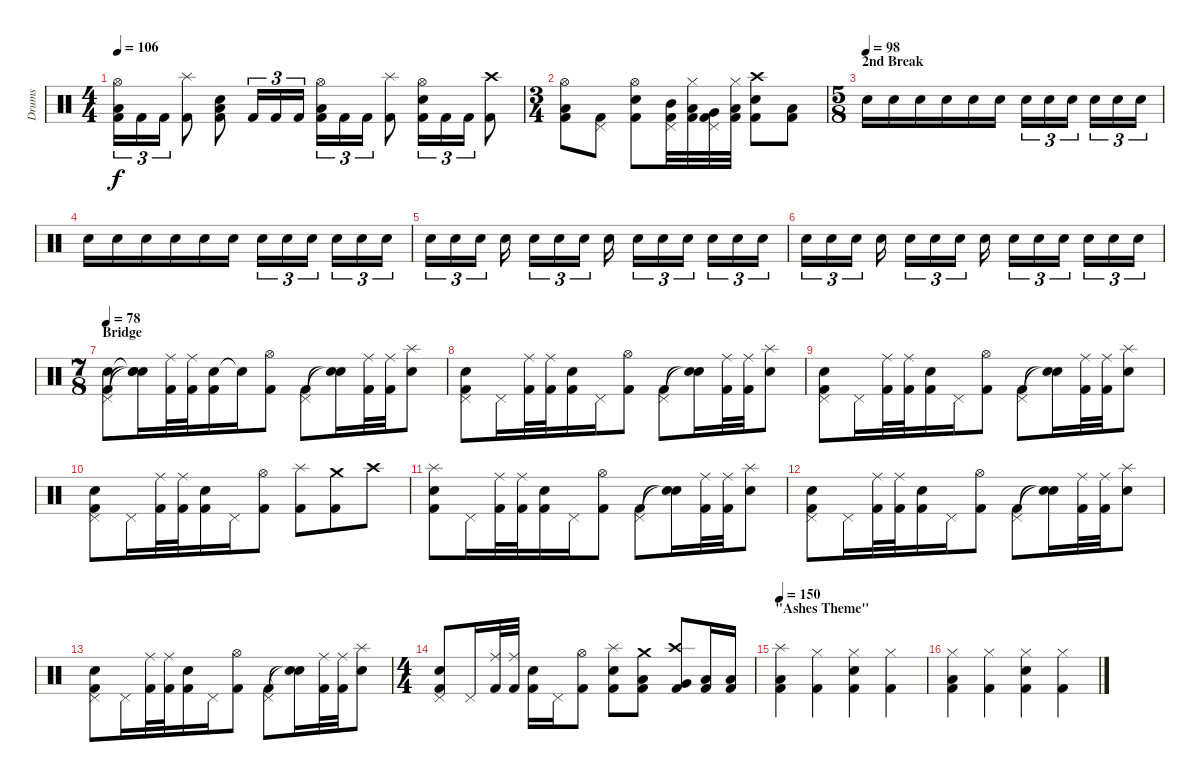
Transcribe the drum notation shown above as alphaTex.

\track ("Drums" "Drums") {instrument percussion}
\staff {score}
\articulation defaults
\ts (4 4)
\tempo 106
\clef neutral
\ks c
("Hi-Hat (open)" "Low Tom (hit)" "Kick (hit) 2").16{tu (3 2) dy f} "Kick (hit) 2".16{tu (3 2)} "Kick (hit) 2".16{tu (3 2)} ("Splash (hit)" "Kick (hit) 2").8 ("Low Tom (hit)" "Electric Snare (hit)" "Kick (hit) 2").8 "Kick (hit) 2".16{tu (3 2)} "Kick (hit) 2".16{tu (3 2)} "Kick (hit) 2".16{tu (3 2)} ("Hi-Hat (open)" "Low Tom (hit)" "Kick (hit) 2").16{tu (3 2)} "Kick (hit) 2".16{tu (3 2)} "Kick (hit) 2".16{tu (3 2)} ("Splash (hit)" "Kick (hit) 2").8 ("Hi-Hat (open)" "Electric Snare (hit)" "Kick (hit) 2").16{tu (3 2)} "Kick (hit) 2".16{tu (3 2)} "Kick (hit) 2".16{tu (3 2)} ("Crash high (hit)" "Kick (hit) 2").8 |
\ts (3 4)
("Hi-Hat (open)" "Low Tom (hit)" "Kick (hit) 2").8 ("Pedal Hi-Hat (hit)" "Kick (hit) 2").8 ("Hi-Hat (open)" "Electric Snare (hit)" "Kick (hit) 2").8 ("Mid Tom (hit)" "Pedal Hi-Hat (hit)" "Kick (hit) 2").32 ("Low Tom (hit)" "Hi-Hat (closed)" "Kick (hit) 2").32 ("Very Low Tom (hit)" "Pedal Hi-Hat (hit)" "Kick (hit) 2").32 ("Low Floor Tom (hit)" "Hi-Hat (closed)" "Kick (hit) 2").32 ("Crash high (hit)" "Electric Snare (hit)" "Kick (hit) 2").8 ("Low Tom (hit)" "Kick (hit) 2").8 |
\ts (5 8)
\section ("" "2nd Break")
\tempo (98)
"Snare (hit) 2".16{volume 9} "Electric Snare (hit)".16 "Snare (hit) 2".16 "Electric Snare (hit)".16 "Snare (hit) 2".16 "Electric Snare (hit)".16 "Snare (hit) 2".16{tu (3 2)} "Electric Snare (hit)".16{tu (3 2)} "Snare (hit) 2".16{tu (3 2)} "Electric Snare (hit)".16{tu (3 2)} "Snare (hit) 2".16{tu (3 2)} "Electric Snare (hit)".16{tu (3 2)} |
"Snare (hit) 2".16 "Electric Snare (hit)".16 "Snare (hit) 2".16 "Electric Snare (hit)".16 "Snare (hit) 2".16 "Electric Snare (hit)".16 "Snare (hit) 2".16{tu (3 2)} "Electric Snare (hit)".16{tu (3 2)} "Snare (hit) 2".16{tu (3 2)} "Electric Snare (hit)".16{tu (3 2)} "Snare (hit) 2".16{tu (3 2)} "Electric Snare (hit)".16{tu (3 2)} |
"Snare (hit) 2".16{tu (3 2)} "Electric Snare (hit)".16{tu (3 2)} "Snare (hit) 2".16{tu (3 2)} "Electric Snare (hit)".16 "Snare (hit) 2".16{tu (3 2)} "Electric Snare (hit)".16{tu (3 2)} "Snare (hit) 2".16{tu (3 2)} "Electric Snare (hit)".16 "Snare (hit) 2".16{tu (3 2)} "Electric Snare (hit)".16{tu (3 2)} "Snare (hit) 2".16{tu (3 2)} "Electric Snare (hit)".16{tu (3 2)} "Snare (hit) 2".16{tu (3 2)} "Electric Snare (hit)".16{tu (3 2)} |
"Snare (hit) 2".16{tu (3 2)} "Electric Snare (hit)".16{tu (3 2)} "Snare (hit) 2".16{tu (3 2)} "Electric Snare (hit)".16 "Snare (hit) 2".16{tu (3 2)} "Electric Snare (hit)".16{tu (3 2)} "Snare (hit) 2".16{tu (3 2)} "Electric Snare (hit)".16 "Snare (hit) 2".16{tu (3 2)} "Electric Snare (hit)".16{tu (3 2)} "Snare (hit) 2".16{tu (3 2)} "Electric Snare (hit)".16{tu (3 2)} "Snare (hit) 2".16{tu (3 2)} "Electric Snare (hit)".16{tu (3 2)} |
\ts (7 8)
\section ("" "Bridge")
\tempo 78
("Pedal Hi-Hat (hit)" "Snare (hit) 2" "Kick (hit) 2").8 ("Snare (hit)"{t} "Snare (hit)"{t} "Snare (hit)"{t}).16 ("Ride (middle)" "Kick (hit) 2").32 ("Ride (middle)" "Kick (hit) 2").32 ("Snare (hit) 2" "Kick (hit) 2").16 "Snare (hit)"{t}.16 ("Hi-Hat (open)" "Kick (hit) 2").8 ("Pedal Hi-Hat (hit)" "Kick (hit) 2").8 ("Snare (hit)"{t} "Snare (hit)"{t}).16 ("Ride (middle)" "Kick (hit) 2").32 ("Ride (middle)" "Kick (hit) 2").32 ("Splash (hit)" "Electric Snare (hit)").8 |
("Pedal Hi-Hat (hit)" "Snare (hit) 2" "Kick (hit) 2").8 "Pedal Hi-Hat (hit)".16 ("Ride (middle)" "Kick (hit) 2").32 ("Ride (middle)" "Kick (hit) 2").32 ("Snare (hit) 2" "Kick (hit) 2").16 "Pedal Hi-Hat (hit)".16 ("Hi-Hat (open)" "Kick (hit) 2").8 ("Pedal Hi-Hat (hit)" "Kick (hit) 2").8 ("Snare (hit)"{t} "Snare (hit)"{t}).16 ("Ride (middle)" "Kick (hit) 2").32 ("Ride (middle)" "Kick (hit) 2").32 ("Splash (hit)" "Electric Snare (hit)").8 |
("Pedal Hi-Hat (hit)" "Snare (hit) 2" "Kick (hit) 2").8 "Pedal Hi-Hat (hit)".16 ("Ride (middle)" "Kick (hit) 2").32 ("Ride (middle)" "Kick (hit) 2").32 ("Snare (hit) 2" "Kick (hit) 2").16 "Pedal Hi-Hat (hit)".16 ("Hi-Hat (open)" "Kick (hit) 2").8 ("Pedal Hi-Hat (hit)" "Kick (hit) 2").8 ("Snare (hit)"{t} "Snare (hit)"{t}).16 ("Ride (middle)" "Kick (hit) 2").32 ("Ride (middle)" "Kick (hit) 2").32 ("Splash (hit)" "Electric Snare (hit)").8 |
("Pedal Hi-Hat (hit)" "Snare (hit) 2" "Kick (hit) 2").8 "Pedal Hi-Hat (hit)".16 ("Ride (middle)" "Kick (hit) 2").32 ("Ride (middle)" "Kick (hit) 2").32 ("Snare (hit) 2" "Kick (hit) 2").16 "Pedal Hi-Hat (hit)".16 ("Hi-Hat (open)" "Kick (hit) 2").8 ("Splash (hit)" "Kick (hit) 2").8 ("Crash medium (hit)" "Kick (hit) 2").8 "Crash high (hit)".8 |
("Splash (hit)" "Snare (hit) 2" "Kick (hit) 2").8 "Pedal Hi-Hat (hit)".16 ("Ride (middle)" "Kick (hit) 2").32 ("Ride (middle)" "Kick (hit) 2").32 ("Snare (hit) 2" "Kick (hit) 2").16 "Pedal Hi-Hat (hit)".16 ("Hi-Hat (open)" "Kick (hit) 2").8 ("Pedal Hi-Hat (hit)" "Kick (hit) 2").8 ("Snare (hit)"{t} "Snare (hit)"{t}).16 ("Ride (middle)" "Kick (hit) 2").32 ("Ride (middle)" "Kick (hit) 2").32 ("Splash (hit)" "Electric Snare (hit)").8 |
("Pedal Hi-Hat (hit)" "Snare (hit) 2" "Kick (hit) 2").8 "Pedal Hi-Hat (hit)".16 ("Ride (middle)" "Kick (hit) 2").32 ("Ride (middle)" "Kick (hit) 2").32 ("Snare (hit) 2" "Kick (hit) 2").16 "Pedal Hi-Hat (hit)".16 ("Hi-Hat (open)" "Kick (hit) 2").8 ("Pedal Hi-Hat (hit)" "Kick (hit) 2").8 ("Snare (hit)"{t} "Snare (hit)"{t}).16 ("Ride (middle)" "Kick (hit) 2").32 ("Ride (middle)" "Kick (hit) 2").32 ("Splash (hit)" "Electric Snare (hit)").8 |
("Pedal Hi-Hat (hit)" "Snare (hit) 2" "Kick (hit) 2").8 "Pedal Hi-Hat (hit)".16 ("Ride (middle)" "Kick (hit) 2").32 ("Ride (middle)" "Kick (hit) 2").32 ("Snare (hit) 2" "Kick (hit) 2").16 "Pedal Hi-Hat (hit)".16 ("Hi-Hat (open)" "Kick (hit) 2").8 ("Pedal Hi-Hat (hit)" "Kick (hit) 2").8 ("Snare (hit)"{t} "Snare (hit)"{t}).16 ("Ride (middle)" "Kick (hit) 2").32 ("Ride (middle)" "Kick (hit) 2").32 ("Splash (hit)" "Electric Snare (hit)").8 |
\ts (4 4)
("Pedal Hi-Hat (hit)" "Snare (hit) 2" "Kick (hit) 2").8 "Pedal Hi-Hat (hit)".16 ("Ride (middle)" "Kick (hit) 2").32 ("Ride (middle)" "Kick (hit) 2").32 ("Snare (hit) 2" "Kick (hit) 2").16 "Pedal Hi-Hat (hit)".16 ("Hi-Hat (open)" "Kick (hit) 2").8 ("Splash (hit)" "Electric Snare (hit)" "Kick (hit) 2").8 ("Crash medium (hit)" "Low Tom (hit)" "Kick (hit) 2").8 ("Crash high (hit)" "Very Low Tom (hit)" "Kick (hit) 2").8 ("Low Floor Tom (hit)" "Kick (hit) 2").16 ("Low Floor Tom (hit)" "Kick (hit) 2").16 |
\section ("" "\"Ashes Theme\"")
\tempo 150
("Splash (hit)" "Low Tom (hit)" "Kick (hit) 2").4{volume 11} ("Hi-Hat (closed)" "Kick (hit) 2").4 ("Hi-Hat (closed)" "Electric Snare (hit)" "Kick (hit) 2").4 ("Hi-Hat (closed)" "Kick (hit) 2").4 |
("Hi-Hat (closed)" "Low Tom (hit)" "Kick (hit) 2").4 ("Hi-Hat (closed)" "Kick (hit) 2").4 ("Hi-Hat (closed)" "Electric Snare (hit)" "Kick (hit) 2").4 ("Hi-Hat (closed)" "Kick (hit) 2").4
